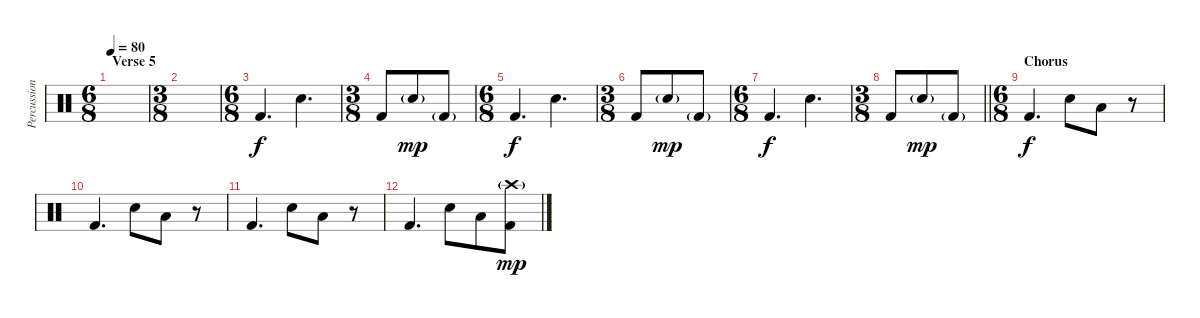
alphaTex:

\track ("Percussion" "Percussion") {instrument percussion}
\staff {score}
\articulation defaults
\ts (6 8)
\section ("" "Verse 5")
\tempo 80
\clef neutral
\ks c
|
\ts (3 8)
|
\ts (6 8)
"Kick (hit) 2".4{d} "Snare (hit) 2".4{d} |
\ts (3 8)
"Kick (hit) 2".8 "Snare (hit) 2"{g}.8{dy mp} "Kick (hit) 2"{g}.8 |
\ts (6 8)
"Kick (hit) 2".4{d dy f} "Snare (hit) 2".4{d} |
\ts (3 8)
"Kick (hit) 2".8 "Snare (hit) 2"{g}.8{dy mp} "Kick (hit) 2"{g}.8 |
\ts (6 8)
"Kick (hit) 2".4{d dy f} "Snare (hit) 2".4{d} |
\ts (3 8)
\barLineRight lightlight "Kick (hit) 2".8 "Snare (hit) 2"{g}.8{dy mp} "Kick (hit) 2"{g}.8
|
\ts (6 8)
\section ("" "Chorus")
"Kick (hit) 2".4{d dy f} "Snare (hit) 2".8 "Low Floor Tom (hit)".8 r.8 |
"Kick (hit) 2".4{d} "Snare (hit) 2".8 "Low Floor Tom (hit)".8 r.8 |
"Kick (hit) 2".4{d} "Snare (hit) 2".8 "Low Floor Tom (hit)".8 r.8 |
"Kick (hit) 2".4{d} "Snare (hit) 2".8 "Low Floor Tom (hit)".8 ("Crash high (hit)"{g} "Kick (hit) 2").8{dy mp}
